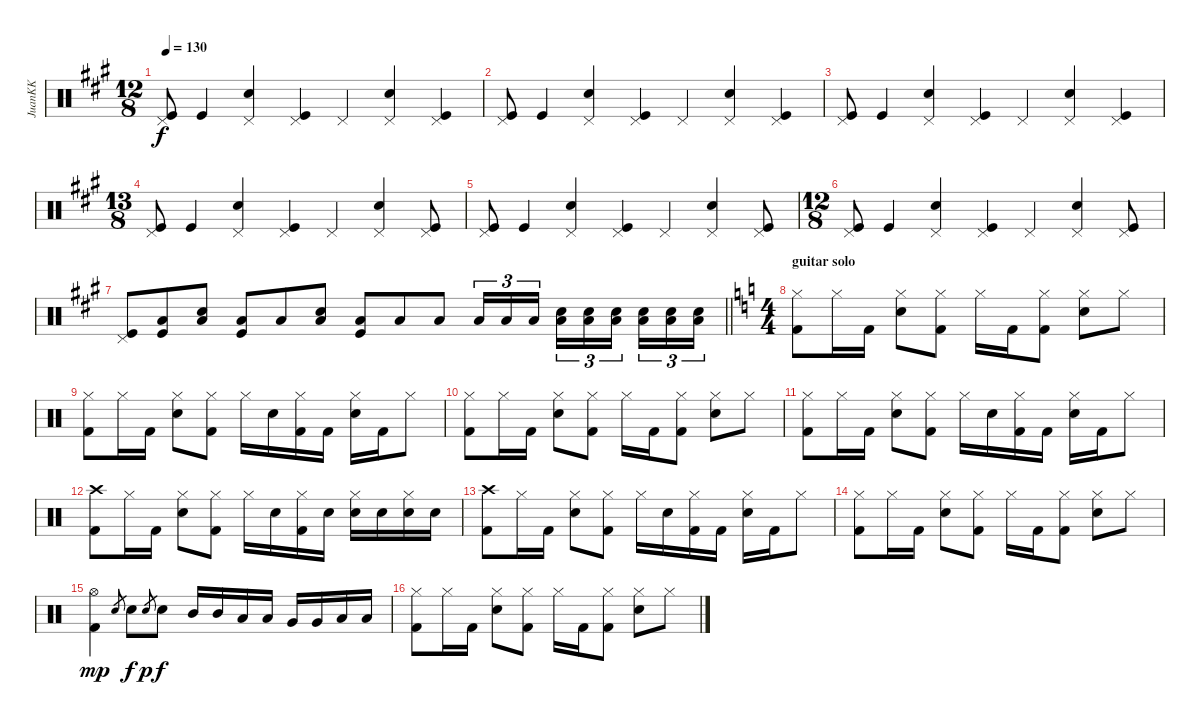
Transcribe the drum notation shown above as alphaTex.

\track ("JuanKK" "JuanKK") {instrument percussion}
\staff {score}
\articulation defaults
\ts (12 8)
\tempo 130
\clef neutral
\ks a
("Kick (hit)" "Pedal Hi-Hat (hit)").8{dy f} "Kick (hit)".4 ("Electric Snare (hit)" "Pedal Hi-Hat (hit)").4 ("Kick (hit)" "Pedal Hi-Hat (hit)").4 "Pedal Hi-Hat (hit)".4 ("Electric Snare (hit)" "Pedal Hi-Hat (hit)").4 ("Kick (hit)" "Pedal Hi-Hat (hit)").4 |
("Kick (hit)" "Pedal Hi-Hat (hit)").8 "Kick (hit)".4 ("Electric Snare (hit)" "Pedal Hi-Hat (hit)").4 ("Kick (hit)" "Pedal Hi-Hat (hit)").4 "Pedal Hi-Hat (hit)".4 ("Electric Snare (hit)" "Pedal Hi-Hat (hit)").4 ("Kick (hit)" "Pedal Hi-Hat (hit)").4 |
("Kick (hit)" "Pedal Hi-Hat (hit)").8 "Kick (hit)".4 ("Electric Snare (hit)" "Pedal Hi-Hat (hit)").4 ("Kick (hit)" "Pedal Hi-Hat (hit)").4 "Pedal Hi-Hat (hit)".4 ("Electric Snare (hit)" "Pedal Hi-Hat (hit)").4 ("Kick (hit)" "Pedal Hi-Hat (hit)").4 |
\ts (13 8)
("Kick (hit)" "Pedal Hi-Hat (hit)").8 "Kick (hit)".4 ("Electric Snare (hit)" "Pedal Hi-Hat (hit)").4 ("Kick (hit)" "Pedal Hi-Hat (hit)").4 "Pedal Hi-Hat (hit)".4 ("Electric Snare (hit)" "Pedal Hi-Hat (hit)").4 ("Kick (hit)" "Pedal Hi-Hat (hit)").8 |
("Kick (hit)" "Pedal Hi-Hat (hit)").8 "Kick (hit)".4 ("Electric Snare (hit)" "Pedal Hi-Hat (hit)").4 ("Kick (hit)" "Pedal Hi-Hat (hit)").4 "Pedal Hi-Hat (hit)".4 ("Electric Snare (hit)" "Pedal Hi-Hat (hit)").4 ("Kick (hit)" "Pedal Hi-Hat (hit)").8 |
\ts (12 8)
("Kick (hit)" "Pedal Hi-Hat (hit)").8 "Kick (hit)".4 ("Electric Snare (hit)" "Pedal Hi-Hat (hit)").4 ("Kick (hit)" "Pedal Hi-Hat (hit)").4 "Pedal Hi-Hat (hit)".4 ("Electric Snare (hit)" "Pedal Hi-Hat (hit)").4 ("Kick (hit)" "Pedal Hi-Hat (hit)").8 |
\barLineRight lightlight
("Kick (hit)" "Pedal Hi-Hat (hit)").8 ("Kick (hit)" "Low Floor Tom (hit)").8 ("Electric Snare (hit)" "Low Floor Tom (hit)").8 ("Kick (hit)" "Low Floor Tom (hit)").8 "Low Floor Tom (hit)".8 ("Electric Snare (hit)" "Low Floor Tom (hit)").8 ("Kick (hit)" "Low Floor Tom (hit)").8 "Low Floor Tom (hit)".8 "Low Floor Tom (hit)".8 "Low Floor Tom (hit)".16{tu (3 2)} "Low Floor Tom (hit)".16{tu (3 2)} "Low Floor Tom (hit)".16{tu (3 2) beam splitsecondary} ("Electric Snare (hit)" "Low Floor Tom (hit)").16{tu (3 2)} ("Electric Snare (hit)" "Low Floor Tom (hit)").16{tu (3 2)} ("Electric Snare (hit)" "Low Floor Tom (hit)").16{tu (3 2) beam splitsecondary} ("Electric Snare (hit)" "Low Floor Tom (hit)").16{tu (3 2)} ("Electric Snare (hit)" "Low Floor Tom (hit)").16{tu (3 2)} ("Electric Snare (hit)" "Low Floor Tom (hit)").16{tu (3 2)} |
\ts (4 4)
\section ("" "guitar solo")
\ks c
("Hi-Hat (closed)" "Kick (hit) 2").8 "Hi-Hat (closed)".16 "Kick (hit) 2".16 ("Hi-Hat (closed)" "Electric Snare (hit)").8 ("Hi-Hat (closed)" "Kick (hit) 2").8 "Hi-Hat (closed)".16 "Kick (hit) 2".16 ("Hi-Hat (closed)" "Kick (hit) 2").8 ("Hi-Hat (closed)" "Electric Snare (hit)").8 "Hi-Hat (closed)".8 |
("Hi-Hat (closed)" "Kick (hit) 2").8 "Hi-Hat (closed)".16 "Kick (hit) 2".16 ("Hi-Hat (closed)" "Electric Snare (hit)").8 ("Hi-Hat (closed)" "Kick (hit) 2").8 "Hi-Hat (closed)".16 "Electric Snare (hit)".16 ("Hi-Hat (closed)" "Kick (hit) 2").16 "Kick (hit) 2".16 ("Hi-Hat (closed)" "Electric Snare (hit)").16 "Kick (hit) 2".16 "Hi-Hat (closed)".8 |
("Hi-Hat (closed)" "Kick (hit) 2").8 "Hi-Hat (closed)".16 "Kick (hit) 2".16 ("Hi-Hat (closed)" "Electric Snare (hit)").8 ("Hi-Hat (closed)" "Kick (hit) 2").8 "Hi-Hat (closed)".16 "Kick (hit) 2".16 ("Hi-Hat (closed)" "Kick (hit) 2").8 ("Hi-Hat (closed)" "Electric Snare (hit)").8 "Hi-Hat (closed)".8 |
("Hi-Hat (closed)" "Kick (hit) 2").8 "Hi-Hat (closed)".16 "Kick (hit) 2".16 ("Hi-Hat (closed)" "Electric Snare (hit)").8 ("Hi-Hat (closed)" "Kick (hit) 2").8 "Hi-Hat (closed)".16 "Electric Snare (hit)".16 ("Hi-Hat (closed)" "Kick (hit) 2").16 "Kick (hit) 2".16 ("Hi-Hat (closed)" "Electric Snare (hit)").16 "Kick (hit) 2".16 "Hi-Hat (closed)".8 |
("Crash high (hit)" "Kick (hit) 2").8 "Hi-Hat (closed)".16 "Kick (hit) 2".16 ("Hi-Hat (closed)" "Electric Snare (hit)").8 ("Hi-Hat (closed)" "Kick (hit) 2").8 "Hi-Hat (closed)".16 "Electric Snare (hit)".16 ("Hi-Hat (closed)" "Kick (hit) 2").16 "Electric Snare (hit)".16 ("Hi-Hat (closed)" "Electric Snare (hit)").16 "Electric Snare (hit)".16 ("Hi-Hat (closed)" "Electric Snare (hit)").16 "Electric Snare (hit)".16 |
("Crash high (hit)" "Kick (hit) 2").8 "Hi-Hat (closed)".16 "Kick (hit) 2".16 ("Hi-Hat (closed)" "Electric Snare (hit)").8 ("Hi-Hat (closed)" "Kick (hit) 2").8 "Hi-Hat (closed)".16 "Electric Snare (hit)".16 ("Hi-Hat (closed)" "Kick (hit) 2").16 "Kick (hit) 2".16 ("Hi-Hat (closed)" "Electric Snare (hit)").16 "Kick (hit) 2".16 "Hi-Hat (closed)".8 |
("Hi-Hat (closed)" "Kick (hit) 2").8 "Hi-Hat (closed)".16 "Kick (hit) 2".16 ("Hi-Hat (closed)" "Electric Snare (hit)").8 ("Hi-Hat (closed)" "Kick (hit) 2").8 "Hi-Hat (closed)".16 "Kick (hit) 2".16 ("Hi-Hat (closed)" "Kick (hit) 2").8 ("Hi-Hat (closed)" "Electric Snare (hit)").8 "Hi-Hat (closed)".8 |
("Hi-Hat (open)" "Kick (hit) 2").4{dy mp} "Electric Snare (hit)".8{gr} "Electric Snare (hit)".8{dy f} "Electric Snare (hit)".8{gr dy p} "Electric Snare (hit)".8{dy f} "Mid Tom (hit)".16 "Mid Tom (hit)".16 "Low Tom (hit)".16 "Low Tom (hit)".16 "Very Low Tom (hit)".16 "Very Low Tom (hit)".16 "Low Floor Tom (hit)".16 "Low Floor Tom (hit)".16 |
("Hi-Hat (closed)" "Kick (hit) 2").8 "Hi-Hat (closed)".16 "Kick (hit) 2".16 ("Hi-Hat (closed)" "Electric Snare (hit)").8 ("Hi-Hat (closed)" "Kick (hit) 2").8 "Hi-Hat (closed)".16 "Kick (hit) 2".16 ("Hi-Hat (closed)" "Kick (hit) 2").8 ("Hi-Hat (closed)" "Electric Snare (hit)").8 "Hi-Hat (closed)".8
